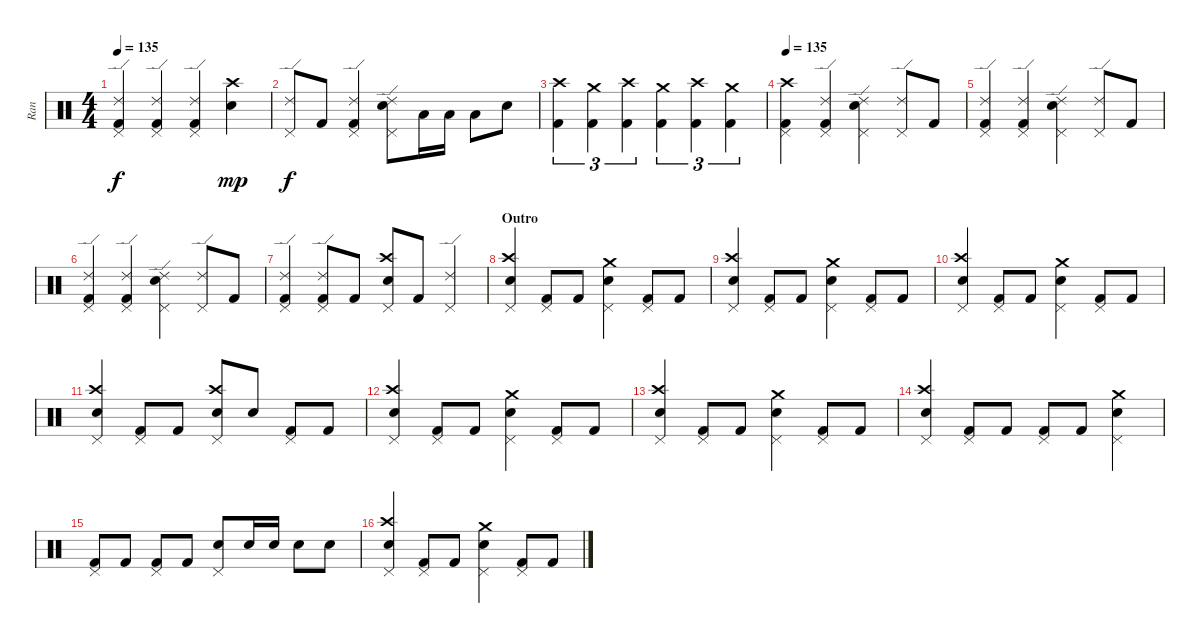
\track ("Ran" "Ran") {instrument percussion}
\staff {score}
\articulation defaults
\ts (4 4)
\tempo 135
\clef neutral
\ks c
("Ride (edge) 2" "Pedal Hi-Hat (hit)" "Kick (hit) 2").4{dy f} ("Ride (edge) 2" "Pedal Hi-Hat (hit)" "Kick (hit) 2").4 ("Ride (edge) 2" "Pedal Hi-Hat (hit)" "Kick (hit) 2").4 ("Crash high (hit)" "Snare (hit) 2").4{dy mp} |
("Ride (edge) 2" "Pedal Hi-Hat (hit)").8{dy f} "Kick (hit) 2".8 ("Ride (edge) 2" "Pedal Hi-Hat (hit)" "Kick (hit) 2").4 ("Ride (edge) 2" "Snare (hit) 2" "Pedal Hi-Hat (hit)").8 "Low Tom (hit)".16 "Low Tom (hit)".16 "Low Tom (hit)".8 "Snare (hit) 2".8 |
("Crash high (hit)" "Kick (hit) 2").4{tu (3 2)} ("Crash medium (hit)" "Kick (hit) 2").4{tu (3 2)} ("Crash high (hit)" "Kick (hit) 2").4{tu (3 2)} ("Crash medium (hit)" "Kick (hit) 2").4{tu (3 2)} ("Crash high (hit)" "Kick (hit) 2").4{tu (3 2)} ("Crash medium (hit)" "Kick (hit) 2").4{tu (3 2)} |
\tempo 135
("Crash high (hit)" "Pedal Hi-Hat (hit)" "Kick (hit) 2").4 ("Ride (edge) 2" "Pedal Hi-Hat (hit)" "Kick (hit) 2").4 ("Ride (edge) 2" "Snare (hit) 2" "Pedal Hi-Hat (hit)").4 ("Ride (edge) 2" "Pedal Hi-Hat (hit)").8 "Kick (hit) 2".8 |
("Ride (edge) 2" "Pedal Hi-Hat (hit)" "Kick (hit) 2").4 ("Ride (edge) 2" "Pedal Hi-Hat (hit)" "Kick (hit) 2").4 ("Ride (edge) 2" "Snare (hit) 2" "Pedal Hi-Hat (hit)").4 ("Ride (edge) 2" "Pedal Hi-Hat (hit)").8 "Kick (hit) 2".8 |
("Ride (edge) 2" "Pedal Hi-Hat (hit)" "Kick (hit) 2").4 ("Ride (edge) 2" "Pedal Hi-Hat (hit)" "Kick (hit) 2").4 ("Ride (edge) 2" "Snare (hit) 2" "Pedal Hi-Hat (hit)").4 ("Ride (edge) 2" "Pedal Hi-Hat (hit)").8 "Kick (hit) 2".8 |
("Ride (edge) 2" "Pedal Hi-Hat (hit)" "Kick (hit) 2").4 ("Ride (edge) 2" "Pedal Hi-Hat (hit)" "Kick (hit) 2").8 "Kick (hit) 2".8 ("Crash high (hit)" "Snare (hit) 2" "Pedal Hi-Hat (hit)").8 "Kick (hit) 2".8 ("Ride (edge) 2" "Pedal Hi-Hat (hit)").4 |
\section ("" "Outro")
("Crash high (hit)" "Snare (hit) 2" "Pedal Hi-Hat (hit)").4 ("Pedal Hi-Hat (hit)" "Kick (hit) 2").8 "Kick (hit) 2".8 ("Crash medium (hit)" "Snare (hit) 2" "Pedal Hi-Hat (hit)").4 ("Pedal Hi-Hat (hit)" "Kick (hit) 2").8 "Kick (hit) 2".8 |
("Crash high (hit)" "Snare (hit) 2" "Pedal Hi-Hat (hit)").4 ("Pedal Hi-Hat (hit)" "Kick (hit) 2").8 "Kick (hit) 2".8 ("Crash medium (hit)" "Snare (hit) 2" "Pedal Hi-Hat (hit)").4 ("Pedal Hi-Hat (hit)" "Kick (hit) 2").8 "Kick (hit) 2".8 |
("Crash high (hit)" "Snare (hit) 2" "Pedal Hi-Hat (hit)").4 ("Pedal Hi-Hat (hit)" "Kick (hit) 2").8 "Kick (hit) 2".8 ("Crash medium (hit)" "Snare (hit) 2" "Pedal Hi-Hat (hit)").4 ("Pedal Hi-Hat (hit)" "Kick (hit) 2").8 "Kick (hit) 2".8 |
("Crash high (hit)" "Snare (hit) 2" "Pedal Hi-Hat (hit)").4 ("Pedal Hi-Hat (hit)" "Kick (hit) 2").8 "Kick (hit) 2".8 ("Crash high (hit)" "Snare (hit) 2" "Pedal Hi-Hat (hit)").8 "Snare (hit) 2".8 ("Pedal Hi-Hat (hit)" "Kick (hit) 2").8 "Kick (hit) 2".8 |
("Crash high (hit)" "Snare (hit) 2" "Pedal Hi-Hat (hit)").4 ("Pedal Hi-Hat (hit)" "Kick (hit) 2").8 "Kick (hit) 2".8 ("Crash medium (hit)" "Snare (hit) 2" "Pedal Hi-Hat (hit)").4 ("Pedal Hi-Hat (hit)" "Kick (hit) 2").8 "Kick (hit) 2".8 |
("Crash high (hit)" "Snare (hit) 2" "Pedal Hi-Hat (hit)").4 ("Pedal Hi-Hat (hit)" "Kick (hit) 2").8 "Kick (hit) 2".8 ("Crash medium (hit)" "Snare (hit) 2" "Pedal Hi-Hat (hit)").4 ("Pedal Hi-Hat (hit)" "Kick (hit) 2").8 "Kick (hit) 2".8 |
("Crash high (hit)" "Snare (hit) 2" "Pedal Hi-Hat (hit)").4 ("Pedal Hi-Hat (hit)" "Kick (hit) 2").8 "Kick (hit) 2".8 ("Pedal Hi-Hat (hit)" "Kick (hit) 2").8 "Kick (hit) 2".8 ("Crash medium (hit)" "Snare (hit) 2" "Pedal Hi-Hat (hit)").4 |
("Pedal Hi-Hat (hit)" "Kick (hit) 2").8 "Kick (hit) 2".8 ("Pedal Hi-Hat (hit)" "Kick (hit) 2").8 "Kick (hit) 2".8 ("Pedal Hi-Hat (hit)" "Snare (hit) 2").8 "Snare (hit) 2".16 "Snare (hit) 2".16 "Snare (hit) 2".8 "Snare (hit) 2".8 |
("Crash high (hit)" "Snare (hit) 2" "Pedal Hi-Hat (hit)").4 ("Pedal Hi-Hat (hit)" "Kick (hit) 2").8 "Kick (hit) 2".8 ("Crash medium (hit)" "Snare (hit) 2" "Pedal Hi-Hat (hit)").4 ("Pedal Hi-Hat (hit)" "Kick (hit) 2").8 "Kick (hit) 2".8
